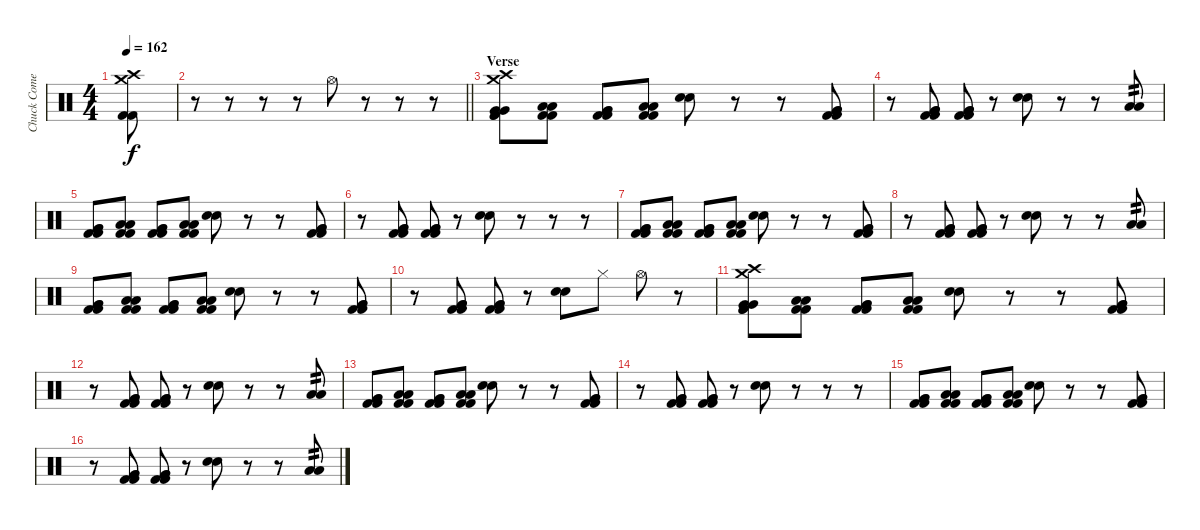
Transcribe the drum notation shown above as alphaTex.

\track ("Chuck Comeau" "Chuck Come") {instrument percussion}
\staff {score}
\articulation defaults
\ts (4 4)
\tempo 162
\clef neutral
\ks c
("Crash high (hit)" "Crash medium (hit)" "Kick (hit) 2" "Kick (hit) 2").8{dy f} |
\barLineRight lightlight
r.8 r.8 r.8 r.8 "Hi-Hat (open)".8 r.8 r.8 r.8 |
\section ("" "Verse")
("Crash medium (hit)" "Crash high (hit)" "Very Low Tom (hit)" "Very Low Tom (hit)" "Kick (hit) 2" "Kick (hit) 2").8 ("Low Tom (hit)" "Low Tom (hit)" "Kick (hit) 2" "Kick (hit) 2").8 ("Very Low Tom (hit)" "Very Low Tom (hit)" "Kick (hit) 2" "Kick (hit) 2").8 ("Low Floor Tom (hit)" "Low Floor Tom (hit)" "Kick (hit) 2" "Kick (hit) 2").8 ("Snare (hit) 2" "Snare (hit) 2").8 r.8 r.8 ("Very Low Tom (hit)" "Very Low Tom (hit)" "Kick (hit) 2" "Kick (hit) 2").8 |
r.8 ("Very Low Tom (hit)" "Very Low Tom (hit)" "Kick (hit) 2" "Kick (hit) 2").8 ("Very Low Tom (hit)" "Very Low Tom (hit)" "Kick (hit) 2" "Kick (hit) 2").8 r.8 ("Snare (hit) 2" "Snare (hit) 2").8 r.8 r.8 ("Low Tom (hit)" "Low Tom (hit)").8{tp 2} |
("Very Low Tom (hit)" "Very Low Tom (hit)" "Kick (hit) 2" "Kick (hit) 2").8 ("Low Tom (hit)" "Low Tom (hit)" "Kick (hit) 2" "Kick (hit) 2").8 ("Very Low Tom (hit)" "Very Low Tom (hit)" "Kick (hit) 2" "Kick (hit) 2").8 ("Low Floor Tom (hit)" "Low Floor Tom (hit)" "Kick (hit) 2" "Kick (hit) 2").8 ("Snare (hit) 2" "Snare (hit) 2").8 r.8 r.8 ("Very Low Tom (hit)" "Very Low Tom (hit)" "Kick (hit) 2" "Kick (hit) 2").8 |
r.8 ("Very Low Tom (hit)" "Very Low Tom (hit)" "Kick (hit) 2" "Kick (hit) 2").8 ("Very Low Tom (hit)" "Very Low Tom (hit)" "Kick (hit) 2" "Kick (hit) 2").8 r.8 ("Snare (hit) 2" "Snare (hit) 2").8 r.8 r.8 r.8 |
("Very Low Tom (hit)" "Very Low Tom (hit)" "Kick (hit) 2" "Kick (hit) 2").8 ("Low Tom (hit)" "Low Tom (hit)" "Kick (hit) 2" "Kick (hit) 2").8 ("Very Low Tom (hit)" "Very Low Tom (hit)" "Kick (hit) 2" "Kick (hit) 2").8 ("Low Floor Tom (hit)" "Low Floor Tom (hit)" "Kick (hit) 2" "Kick (hit) 2").8 ("Snare (hit) 2" "Snare (hit) 2").8 r.8 r.8 ("Very Low Tom (hit)" "Very Low Tom (hit)" "Kick (hit) 2" "Kick (hit) 2").8 |
r.8 ("Very Low Tom (hit)" "Very Low Tom (hit)" "Kick (hit) 2" "Kick (hit) 2").8 ("Very Low Tom (hit)" "Very Low Tom (hit)" "Kick (hit) 2" "Kick (hit) 2").8 r.8 ("Snare (hit) 2" "Snare (hit) 2").8 r.8 r.8 ("Low Tom (hit)" "Low Tom (hit)").8{tp 2} |
("Very Low Tom (hit)" "Very Low Tom (hit)" "Kick (hit) 2" "Kick (hit) 2").8 ("Low Tom (hit)" "Low Tom (hit)" "Kick (hit) 2" "Kick (hit) 2").8 ("Very Low Tom (hit)" "Very Low Tom (hit)" "Kick (hit) 2" "Kick (hit) 2").8 ("Low Floor Tom (hit)" "Low Floor Tom (hit)" "Kick (hit) 2" "Kick (hit) 2").8 ("Snare (hit) 2" "Snare (hit) 2").8 r.8 r.8 ("Very Low Tom (hit)" "Very Low Tom (hit)" "Kick (hit) 2" "Kick (hit) 2").8 |
r.8 ("Very Low Tom (hit)" "Very Low Tom (hit)" "Kick (hit) 2" "Kick (hit) 2").8 ("Very Low Tom (hit)" "Very Low Tom (hit)" "Kick (hit) 2" "Kick (hit) 2").8 r.8 ("Snare (hit) 2" "Snare (hit) 2").8 "Hi-Hat (closed)".8 "Hi-Hat (open)".8 r.8 |
("Crash medium (hit)" "Crash high (hit)" "Very Low Tom (hit)" "Very Low Tom (hit)" "Kick (hit) 2" "Kick (hit) 2").8 ("Low Tom (hit)" "Low Tom (hit)" "Kick (hit) 2" "Kick (hit) 2").8 ("Very Low Tom (hit)" "Very Low Tom (hit)" "Kick (hit) 2" "Kick (hit) 2").8 ("Low Floor Tom (hit)" "Low Floor Tom (hit)" "Kick (hit) 2" "Kick (hit) 2").8 ("Snare (hit) 2" "Snare (hit) 2").8 r.8 r.8 ("Very Low Tom (hit)" "Very Low Tom (hit)" "Kick (hit) 2" "Kick (hit) 2").8 |
r.8 ("Very Low Tom (hit)" "Very Low Tom (hit)" "Kick (hit) 2" "Kick (hit) 2").8 ("Very Low Tom (hit)" "Very Low Tom (hit)" "Kick (hit) 2" "Kick (hit) 2").8 r.8 ("Snare (hit) 2" "Snare (hit) 2").8 r.8 r.8 ("Low Tom (hit)" "Low Tom (hit)").8{tp 2} |
("Very Low Tom (hit)" "Very Low Tom (hit)" "Kick (hit) 2" "Kick (hit) 2").8 ("Low Tom (hit)" "Low Tom (hit)" "Kick (hit) 2" "Kick (hit) 2").8 ("Very Low Tom (hit)" "Very Low Tom (hit)" "Kick (hit) 2" "Kick (hit) 2").8 ("Low Floor Tom (hit)" "Low Floor Tom (hit)" "Kick (hit) 2" "Kick (hit) 2").8 ("Snare (hit) 2" "Snare (hit) 2").8 r.8 r.8 ("Very Low Tom (hit)" "Very Low Tom (hit)" "Kick (hit) 2" "Kick (hit) 2").8 |
r.8 ("Very Low Tom (hit)" "Very Low Tom (hit)" "Kick (hit) 2" "Kick (hit) 2").8 ("Very Low Tom (hit)" "Very Low Tom (hit)" "Kick (hit) 2" "Kick (hit) 2").8 r.8 ("Snare (hit) 2" "Snare (hit) 2").8 r.8 r.8 r.8 |
("Very Low Tom (hit)" "Very Low Tom (hit)" "Kick (hit) 2" "Kick (hit) 2").8 ("Low Tom (hit)" "Low Tom (hit)" "Kick (hit) 2" "Kick (hit) 2").8 ("Very Low Tom (hit)" "Very Low Tom (hit)" "Kick (hit) 2" "Kick (hit) 2").8 ("Low Floor Tom (hit)" "Low Floor Tom (hit)" "Kick (hit) 2" "Kick (hit) 2").8 ("Snare (hit) 2" "Snare (hit) 2").8 r.8 r.8 ("Very Low Tom (hit)" "Very Low Tom (hit)" "Kick (hit) 2" "Kick (hit) 2").8 |
r.8 ("Very Low Tom (hit)" "Very Low Tom (hit)" "Kick (hit) 2" "Kick (hit) 2").8 ("Very Low Tom (hit)" "Very Low Tom (hit)" "Kick (hit) 2" "Kick (hit) 2").8 r.8 ("Snare (hit) 2" "Snare (hit) 2").8 r.8 r.8 ("Low Tom (hit)" "Low Tom (hit)").8{tp 2}
